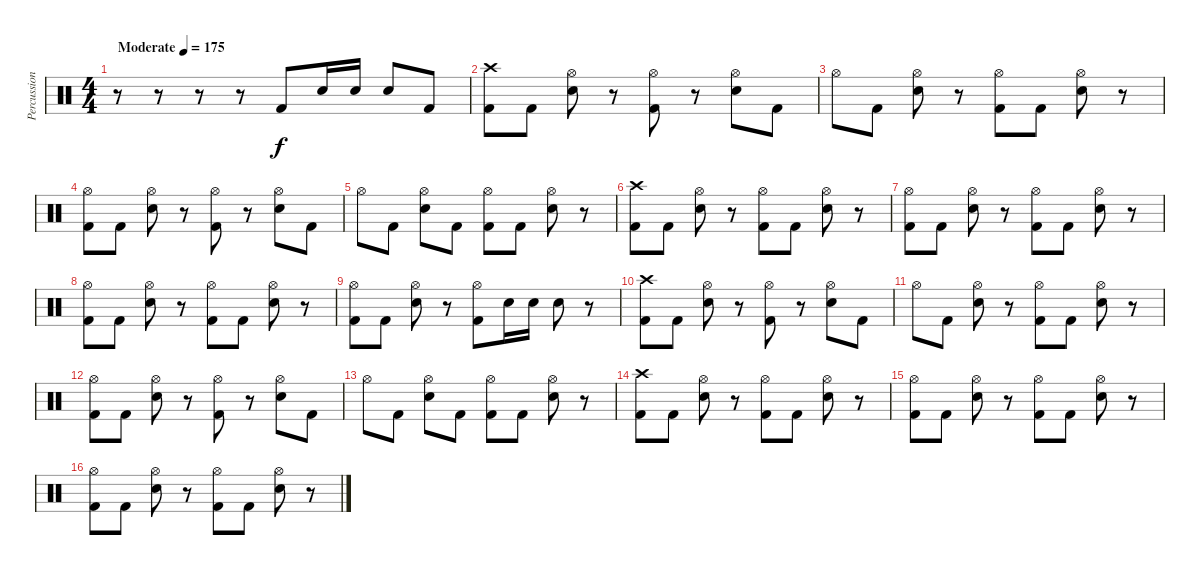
\track ("Percussion" "Percussion") {instrument percussion}
\staff {score}
\articulation defaults
\ts (4 4)
\tempo (175 "Moderate")
\clef neutral
\ks c
r.8{dy f} r.8 r.8 r.8 "Kick (hit) 2".8 "Snare (hit) 2".16 "Snare (hit) 2".16 "Snare (hit) 2".8 "Kick (hit) 2".8 |
("Crash high (hit)" "Kick (hit) 2").8 "Kick (hit) 2".8 ("Hi-Hat (open)" "Snare (hit) 2").8 r.8 ("Hi-Hat (open)" "Kick (hit) 2").8 r.8 ("Hi-Hat (open)" "Snare (hit) 2").8 "Kick (hit) 2".8 |
"Hi-Hat (open)".8 "Kick (hit) 2".8 ("Hi-Hat (open)" "Snare (hit) 2").8 r.8 ("Hi-Hat (open)" "Kick (hit) 2").8 "Kick (hit) 2".8 ("Hi-Hat (open)" "Snare (hit) 2").8 r.8 |
("Hi-Hat (open)" "Kick (hit) 2").8 "Kick (hit) 2".8 ("Hi-Hat (open)" "Snare (hit) 2").8 r.8 ("Hi-Hat (open)" "Kick (hit) 2").8 r.8 ("Hi-Hat (open)" "Snare (hit) 2").8 "Kick (hit) 2".8 |
"Hi-Hat (open)".8 "Kick (hit) 2".8 ("Hi-Hat (open)" "Snare (hit) 2").8 "Kick (hit) 2".8 ("Hi-Hat (open)" "Kick (hit) 2").8 "Kick (hit) 2".8 ("Hi-Hat (open)" "Snare (hit) 2").8 r.8 |
("Crash high (hit)" "Kick (hit) 2").8 "Kick (hit) 2".8 ("Hi-Hat (open)" "Snare (hit) 2").8 r.8 ("Hi-Hat (open)" "Kick (hit) 2").8 "Kick (hit) 2".8 ("Hi-Hat (open)" "Snare (hit) 2").8 r.8 |
("Hi-Hat (open)" "Kick (hit) 2").8 "Kick (hit) 2".8 ("Hi-Hat (open)" "Snare (hit) 2").8 r.8 ("Hi-Hat (open)" "Kick (hit) 2").8 "Kick (hit) 2".8 ("Hi-Hat (open)" "Snare (hit) 2").8 r.8 |
("Hi-Hat (open)" "Kick (hit) 2").8 "Kick (hit) 2".8 ("Hi-Hat (open)" "Snare (hit) 2").8 r.8 ("Hi-Hat (open)" "Kick (hit) 2").8 "Kick (hit) 2".8 ("Hi-Hat (open)" "Snare (hit) 2").8 r.8 |
("Hi-Hat (open)" "Kick (hit) 2").8 "Kick (hit) 2".8 ("Hi-Hat (open)" "Snare (hit) 2").8 r.8 ("Hi-Hat (open)" "Kick (hit) 2").8 "Snare (hit) 2".16 "Snare (hit) 2".16 "Snare (hit) 2".8 r.8 |
("Crash high (hit)" "Kick (hit) 2").8 "Kick (hit) 2".8 ("Hi-Hat (open)" "Snare (hit) 2").8 r.8 ("Hi-Hat (open)" "Kick (hit) 2").8 r.8 ("Hi-Hat (open)" "Snare (hit) 2").8 "Kick (hit) 2".8 |
"Hi-Hat (open)".8 "Kick (hit) 2".8 ("Hi-Hat (open)" "Snare (hit) 2").8 r.8 ("Hi-Hat (open)" "Kick (hit) 2").8 "Kick (hit) 2".8 ("Hi-Hat (open)" "Snare (hit) 2").8 r.8 |
("Hi-Hat (open)" "Kick (hit) 2").8 "Kick (hit) 2".8 ("Hi-Hat (open)" "Snare (hit) 2").8 r.8 ("Hi-Hat (open)" "Kick (hit) 2").8 r.8 ("Hi-Hat (open)" "Snare (hit) 2").8 "Kick (hit) 2".8 |
"Hi-Hat (open)".8 "Kick (hit) 2".8 ("Hi-Hat (open)" "Snare (hit) 2").8 "Kick (hit) 2".8 ("Hi-Hat (open)" "Kick (hit) 2").8 "Kick (hit) 2".8 ("Hi-Hat (open)" "Snare (hit) 2").8 r.8 |
("Crash high (hit)" "Kick (hit) 2").8 "Kick (hit) 2".8 ("Hi-Hat (open)" "Snare (hit) 2").8 r.8 ("Hi-Hat (open)" "Kick (hit) 2").8 "Kick (hit) 2".8 ("Hi-Hat (open)" "Snare (hit) 2").8 r.8 |
("Hi-Hat (open)" "Kick (hit) 2").8 "Kick (hit) 2".8 ("Hi-Hat (open)" "Snare (hit) 2").8 r.8 ("Hi-Hat (open)" "Kick (hit) 2").8 "Kick (hit) 2".8 ("Hi-Hat (open)" "Snare (hit) 2").8 r.8 |
("Hi-Hat (open)" "Kick (hit) 2").8 "Kick (hit) 2".8 ("Hi-Hat (open)" "Snare (hit) 2").8 r.8 ("Hi-Hat (open)" "Kick (hit) 2").8 "Kick (hit) 2".8 ("Hi-Hat (open)" "Snare (hit) 2").8 r.8
